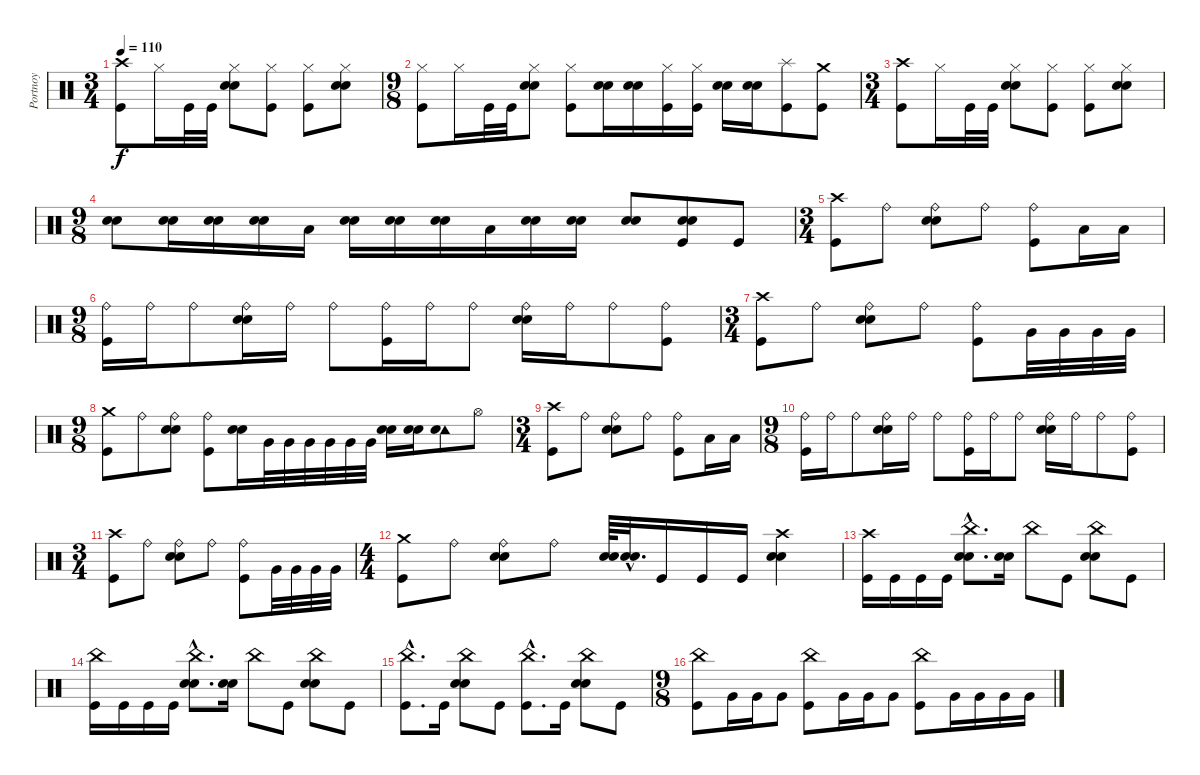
\track ("Portnoy" "Portnoy") {instrument percussion}
\staff {score}
\articulation defaults
\ts (3 4)
\tempo 110
\clef neutral
\ks c
("Crash high (hit)" "Kick (hit)").8{dy f} "Hi-Hat (closed)".16 "Kick (hit)".32 "Kick (hit)".32 ("Hi-Hat (closed)" "Snare (hit) 2" "Electric Snare (hit)").8 ("Hi-Hat (closed)" "Kick (hit)").8 ("Hi-Hat (closed)" "Kick (hit)").8 ("Hi-Hat (closed)" "Snare (hit) 2" "Electric Snare (hit)").8 |
\ts (9 8)
("Hi-Hat (closed)" "Kick (hit)").8 "Hi-Hat (closed)".16 "Kick (hit)".32 "Kick (hit)".32 ("Hi-Hat (closed)" "Snare (hit) 2" "Electric Snare (hit)").8 ("Hi-Hat (closed)" "Kick (hit)").8 ("Snare (hit) 2" "Electric Snare (hit)").16 ("Snare (hit) 2" "Electric Snare (hit)").16 ("Hi-Hat (closed)" "Kick (hit)").16 ("Hi-Hat (closed)" "Kick (hit)").16 ("Snare (hit) 2" "Electric Snare (hit)").16 ("Snare (hit) 2" "Electric Snare (hit)").16 ("Splash (hit)" "Kick (hit)").8 ("Crash medium (hit)" "Kick (hit)").8 |
\ts (3 4)
("Crash high (hit)" "Kick (hit)").8 "Hi-Hat (closed)".16 "Kick (hit)".32 "Kick (hit)".32 ("Hi-Hat (closed)" "Snare (hit) 2" "Electric Snare (hit)").8 ("Hi-Hat (closed)" "Kick (hit)").8 ("Hi-Hat (closed)" "Kick (hit)").8 ("Hi-Hat (closed)" "Snare (hit) 2" "Electric Snare (hit)").8 |
\ts (9 8)
("Snare (hit) 2" "Electric Snare (hit)").8 ("Snare (hit) 2" "Electric Snare (hit)").16 ("Snare (hit) 2" "Electric Snare (hit)").16 ("Snare (hit) 2" "Electric Snare (hit)").16 "Low Tom (hit)".16 ("Snare (hit) 2" "Electric Snare (hit)").16 ("Snare (hit) 2" "Electric Snare (hit)").16 ("Snare (hit) 2" "Electric Snare (hit)").16 "Low Tom (hit)".16 ("Snare (hit) 2" "Electric Snare (hit)").16 ("Snare (hit) 2" "Electric Snare (hit)").16 ("Snare (hit) 2" "Electric Snare (hit)").8 ("Snare (hit) 2" "Electric Snare (hit)" "Kick (hit)").8 "Kick (hit)".8 |
\ts (3 4)
("Crash high (hit)" "Kick (hit)").8 "Ride (bell)".8 ("Ride (bell)" "Snare (hit) 2" "Electric Snare (hit)").8 "Ride (bell)".8 ("Ride (bell)" "Kick (hit)").8 "Low Tom (hit)".16 "Low Tom (hit)".16 |
\ts (9 8)
("Ride (bell)" "Kick (hit)").16 "Ride (bell)".16 "Ride (bell)".8 ("Ride (bell)" "Snare (hit) 2" "Electric Snare (hit)").16 "Ride (bell)".16 "Ride (bell)".8 ("Ride (bell)" "Kick (hit)").16 "Ride (bell)".16 "Ride (bell)".8 ("Ride (bell)" "Snare (hit) 2" "Electric Snare (hit)").16 "Ride (bell)".16 "Ride (bell)".8 ("Ride (bell)" "Kick (hit)").8 |
\ts (3 4)
("Crash high (hit)" "Kick (hit)").8 "Ride (bell)".8 ("Ride (bell)" "Snare (hit) 2" "Electric Snare (hit)").8 "Ride (bell)".8 ("Ride (bell)" "Kick (hit)").8 "Very Low Tom (hit)".32 "Very Low Tom (hit)".32 "Very Low Tom (hit)".32 "Very Low Tom (hit)".32 |
\ts (9 8)
("Crash medium (hit)" "Kick (hit)").8 "Ride (bell)".8 ("Ride (bell)" "Snare (hit) 2" "Electric Snare (hit)").8 ("Ride (bell)" "Kick (hit)").8 ("Snare (hit) 2" "Electric Snare (hit)").16 "Very Low Tom (hit)".32 "Very Low Tom (hit)".32 "Very Low Tom (hit)".32 "Very Low Tom (hit)".32 "Very Low Tom (hit)".32 "Very Low Tom (hit)".32 ("Snare (hit) 2" "Electric Snare (hit)").16 ("Snare (hit) 2" "Electric Snare (hit)").16 ("Tambourine (hit)" "Metronome (bell)").8 "Hi-Hat (open)".8 |
\ts (3 4)
("Crash high (hit)" "Kick (hit)").8 "Ride (bell)".8 ("Ride (bell)" "Snare (hit) 2" "Electric Snare (hit)").8 "Ride (bell)".8 ("Ride (bell)" "Kick (hit)").8 "Low Tom (hit)".16 "Low Tom (hit)".16 |
\ts (9 8)
("Ride (bell)" "Kick (hit)").16 "Ride (bell)".16 "Ride (bell)".8 ("Ride (bell)" "Snare (hit) 2" "Electric Snare (hit)").16 "Ride (bell)".16 "Ride (bell)".8 ("Ride (bell)" "Kick (hit)").16 "Ride (bell)".16 "Ride (bell)".8 ("Ride (bell)" "Snare (hit) 2" "Electric Snare (hit)").16 "Ride (bell)".16 "Ride (bell)".8 ("Ride (bell)" "Kick (hit)").8 |
\ts (3 4)
("Crash high (hit)" "Kick (hit)").8 "Ride (bell)".8 ("Ride (bell)" "Snare (hit) 2" "Electric Snare (hit)").8 "Ride (bell)".8 ("Ride (bell)" "Kick (hit)").8 "Very Low Tom (hit)".32 "Very Low Tom (hit)".32 "Very Low Tom (hit)".32 "Very Low Tom (hit)".32 |
\ts (4 4)
("Crash medium (hit)" "Kick (hit)").8 "Ride (bell)".8 ("Ride (bell)" "Snare (hit) 2" "Electric Snare (hit)").8 "Ride (bell)".8 ("Snare (hit) 2" "Electric Snare (hit)").64 ("Snare (hit) 2"{hac} "Electric Snare (hit)"{hac}).32{d} "Kick (hit)".16 "Kick (hit)".16 "Kick (hit)".16 ("Crash high (hit)" "Snare (hit) 2" "Electric Snare (hit)").4 |
("Crash high (hit)" "Kick (hit)").16 "Kick (hit)".16 "Kick (hit)".16 "Kick (hit)".16 ("China (hit)"{hac} "Snare (hit) 2"{hac} "Electric Snare (hit)"{hac}).8{d} ("Snare (hit) 2" "Electric Snare (hit)").16 "China (hit)".8 "Kick (hit)".8 ("China (hit)" "Snare (hit) 2" "Electric Snare (hit)").8 "Kick (hit)".8 |
("China (hit)" "Kick (hit)").16 "Kick (hit)".16 "Kick (hit)".16 "Kick (hit)".16 ("China (hit)"{hac} "Snare (hit) 2"{hac} "Electric Snare (hit)"{hac}).8{d} ("Snare (hit) 2" "Electric Snare (hit)").16 "China (hit)".8 "Kick (hit)".8 ("China (hit)" "Snare (hit) 2" "Electric Snare (hit)").8 "Kick (hit)".8 |
("China (hit)"{hac} "Kick (hit)"{hac}).8{d} "Kick (hit)".16 ("China (hit)" "Snare (hit) 2" "Electric Snare (hit)").8 "Kick (hit)".8 ("China (hit)"{hac} "Kick (hit)"{hac}).8{d} "Kick (hit)".16 ("China (hit)" "Snare (hit) 2" "Electric Snare (hit)").8 "Kick (hit)".8 |
\ts (9 8)
("China (hit)" "Kick (hit)").8 "Very Low Tom (hit)".16 "Very Low Tom (hit)".16 "Very Low Tom (hit)".8 ("China (hit)" "Kick (hit)").8 "Very Low Tom (hit)".16 "Very Low Tom (hit)".16 "Very Low Tom (hit)".8 ("China (hit)" "Kick (hit)").8 "Very Low Tom (hit)".16 "Very Low Tom (hit)".16 "Very Low Tom (hit)".16 "Very Low Tom (hit)".16
